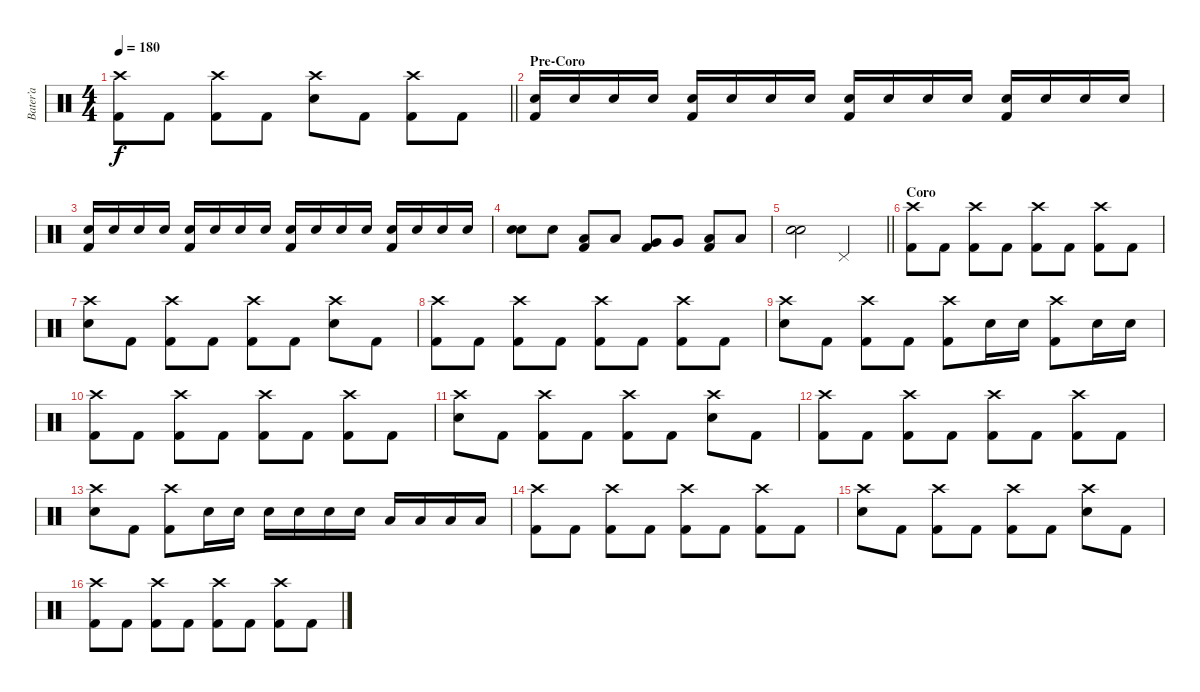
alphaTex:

\track ("Bater’a" "Bater’a") {instrument percussion bank 211}
\staff {score}
\articulation defaults
\ts (4 4)
\tempo 180
\clef neutral
\barLineRight lightlight
\ks c
("Crash high (hit)" "Kick (hit) 2").8{dy f} "Kick (hit) 2".8 ("Crash high (hit)" "Kick (hit) 2").8 "Kick (hit) 2".8 ("Crash high (hit)" "Electric Snare (hit)").8 "Kick (hit) 2".8 ("Crash high (hit)" "Kick (hit) 2").8 "Kick (hit) 2".8 |
\section ("" "Pre-Coro")
("Electric Snare (hit)" "Kick (hit) 2").16 "Electric Snare (hit)".16 "Electric Snare (hit)".16 "Electric Snare (hit)".16 ("Electric Snare (hit)" "Kick (hit) 2").16 "Electric Snare (hit)".16 "Electric Snare (hit)".16 "Electric Snare (hit)".16 ("Electric Snare (hit)" "Kick (hit) 2").16 "Electric Snare (hit)".16 "Electric Snare (hit)".16 "Electric Snare (hit)".16 ("Electric Snare (hit)" "Kick (hit) 2").16 "Electric Snare (hit)".16 "Electric Snare (hit)".16 "Electric Snare (hit)".16 |
("Electric Snare (hit)" "Kick (hit) 2").16 "Electric Snare (hit)".16 "Electric Snare (hit)".16 "Electric Snare (hit)".16 ("Electric Snare (hit)" "Kick (hit) 2").16 "Electric Snare (hit)".16 "Electric Snare (hit)".16 "Electric Snare (hit)".16 ("Electric Snare (hit)" "Kick (hit) 2").16 "Electric Snare (hit)".16 "Electric Snare (hit)".16 "Electric Snare (hit)".16 ("Electric Snare (hit)" "Kick (hit) 2").16 "Electric Snare (hit)".16 "Electric Snare (hit)".16 "Electric Snare (hit)".16 |
("Electric Snare (hit)" "Snare (hit)").8 "Electric Snare (hit)".8 ("Low Tom (hit)" "Kick (hit) 2").8 "Low Tom (hit)".8 ("Very Low Tom (hit)" "Kick (hit) 2").8 "Very Low Tom (hit)".8 ("Low Floor Tom (hit)" "Kick (hit) 2").8 "Low Floor Tom (hit)".8 |
\barLineRight lightlight
("Electric Snare (hit)" "Electric Snare (hit)").2 "Pedal Hi-Hat (hit)".2 |
\section ("" "Coro")
("Crash high (hit)" "Kick (hit) 2").8 "Kick (hit) 2".8 ("Crash high (hit)" "Kick (hit) 2").8 "Kick (hit) 2".8 ("Crash high (hit)" "Kick (hit) 2").8 "Kick (hit) 2".8 ("Crash high (hit)" "Kick (hit) 2").8 "Kick (hit) 2".8 |
("Crash high (hit)" "Electric Snare (hit)").8 "Kick (hit) 2".8 ("Crash high (hit)" "Kick (hit) 2").8 "Kick (hit) 2".8 ("Crash high (hit)" "Kick (hit) 2").8 "Kick (hit) 2".8 ("Crash high (hit)" "Electric Snare (hit)").8 "Kick (hit) 2".8 |
("Crash high (hit)" "Kick (hit) 2").8 "Kick (hit) 2".8 ("Crash high (hit)" "Kick (hit) 2").8 "Kick (hit) 2".8 ("Crash high (hit)" "Kick (hit) 2").8 "Kick (hit) 2".8 ("Crash high (hit)" "Kick (hit) 2").8 "Kick (hit) 2".8 |
("Crash high (hit)" "Electric Snare (hit)").8 "Kick (hit) 2".8 ("Crash high (hit)" "Kick (hit) 2").8 "Kick (hit) 2".8 ("Crash high (hit)" "Kick (hit) 2").8 "Electric Snare (hit)".16 "Electric Snare (hit)".16 ("Crash high (hit)" "Kick (hit) 2").8 "Electric Snare (hit)".16 "Electric Snare (hit)".16 |
("Crash high (hit)" "Kick (hit) 2").8 "Kick (hit) 2".8 ("Crash high (hit)" "Kick (hit) 2").8 "Kick (hit) 2".8 ("Crash high (hit)" "Kick (hit) 2").8 "Kick (hit) 2".8 ("Crash high (hit)" "Kick (hit) 2").8 "Kick (hit) 2".8 |
("Crash high (hit)" "Electric Snare (hit)").8 "Kick (hit) 2".8 ("Crash high (hit)" "Kick (hit) 2").8 "Kick (hit) 2".8 ("Crash high (hit)" "Kick (hit) 2").8 "Kick (hit) 2".8 ("Crash high (hit)" "Electric Snare (hit)").8 "Kick (hit) 2".8 |
("Crash high (hit)" "Kick (hit) 2").8 "Kick (hit) 2".8 ("Crash high (hit)" "Kick (hit) 2").8 "Kick (hit) 2".8 ("Crash high (hit)" "Kick (hit) 2").8 "Kick (hit) 2".8 ("Crash high (hit)" "Kick (hit) 2").8 "Kick (hit) 2".8 |
("Crash high (hit)" "Electric Snare (hit)").8 "Kick (hit) 2".8 ("Crash high (hit)" "Kick (hit) 2").8 "Electric Snare (hit)".16 "Electric Snare (hit)".16 "Electric Snare (hit)".16 "Electric Snare (hit)".16 "Electric Snare (hit)".16 "Electric Snare (hit)".16 "Low Tom (hit)".16 "Low Tom (hit)".16 "Low Tom (hit)".16 "Low Tom (hit)".16 |
("Crash high (hit)" "Kick (hit) 2").8 "Kick (hit) 2".8 ("Crash high (hit)" "Kick (hit) 2").8 "Kick (hit) 2".8 ("Crash high (hit)" "Kick (hit) 2").8 "Kick (hit) 2".8 ("Crash high (hit)" "Kick (hit) 2").8 "Kick (hit) 2".8 |
("Crash high (hit)" "Electric Snare (hit)").8 "Kick (hit) 2".8 ("Crash high (hit)" "Kick (hit) 2").8 "Kick (hit) 2".8 ("Crash high (hit)" "Kick (hit) 2").8 "Kick (hit) 2".8 ("Crash high (hit)" "Electric Snare (hit)").8 "Kick (hit) 2".8 |
("Crash high (hit)" "Kick (hit) 2").8 "Kick (hit) 2".8 ("Crash high (hit)" "Kick (hit) 2").8 "Kick (hit) 2".8 ("Crash high (hit)" "Kick (hit) 2").8 "Kick (hit) 2".8 ("Crash high (hit)" "Kick (hit) 2").8 "Kick (hit) 2".8
